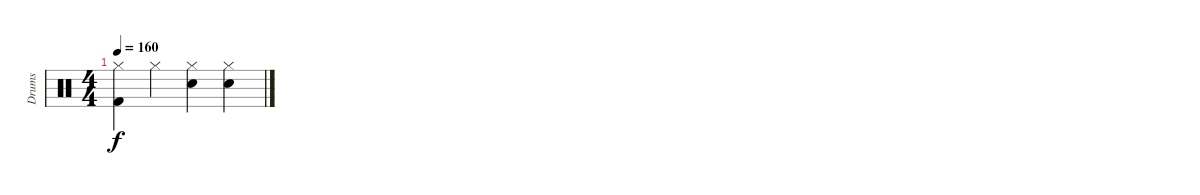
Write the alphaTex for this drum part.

\track ("Drums" "Drums") {instrument percussion}
\staff {score}
\articulation defaults
\ts (4 4)
\tempo 160
\clef neutral
\ks c
("Hi-Hat (closed)" "Kick (hit) 2").4{dy f} "Hi-Hat (closed)".4 ("Hi-Hat (closed)" "Snare (hit) 2").4 ("Hi-Hat (closed)" "Snare (hit) 2").4
